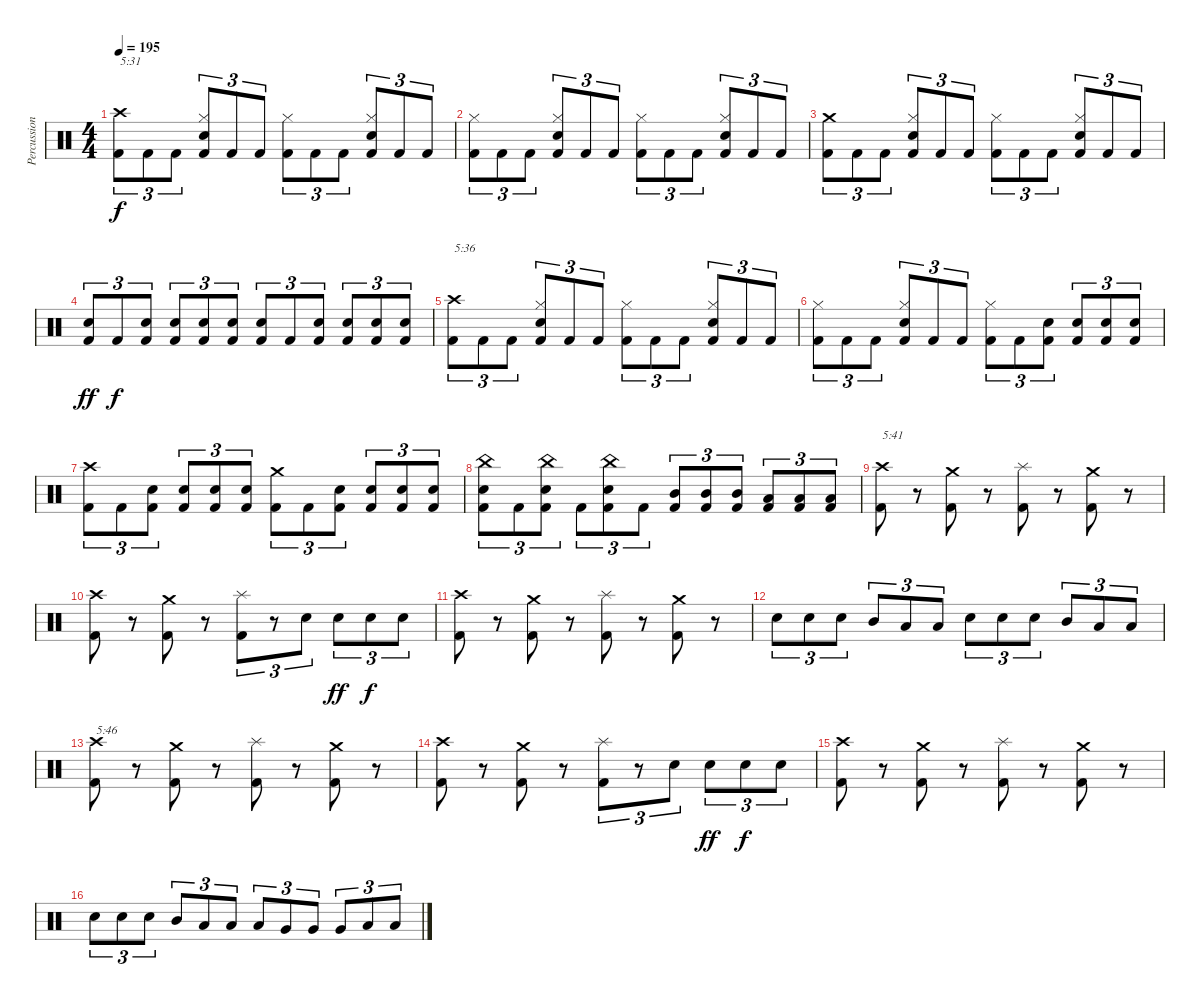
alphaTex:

\track ("Percussion" "Percussion") {instrument percussion}
\staff {score}
\articulation defaults
\ts (4 4)
\tempo 195
\clef neutral
\ks c
("Crash high (hit)" "Kick (hit) 2").8{tu (3 2) txt "5:31" dy f} "Kick (hit) 2".8{tu (3 2)} "Kick (hit) 2".8{tu (3 2)} ("Hi-Hat (closed)" "Snare (hit) 2" "Kick (hit) 2").8{tu (3 2)} "Kick (hit) 2".8{tu (3 2)} "Kick (hit) 2".8{tu (3 2)} ("Hi-Hat (closed)" "Kick (hit) 2").8{tu (3 2)} "Kick (hit) 2".8{tu (3 2)} "Kick (hit) 2".8{tu (3 2)} ("Hi-Hat (closed)" "Snare (hit) 2" "Kick (hit) 2").8{tu (3 2)} "Kick (hit) 2".8{tu (3 2)} "Kick (hit) 2".8{tu (3 2)} |
("Hi-Hat (closed)" "Kick (hit) 2").8{tu (3 2)} "Kick (hit) 2".8{tu (3 2)} "Kick (hit) 2".8{tu (3 2)} ("Hi-Hat (closed)" "Snare (hit) 2" "Kick (hit) 2").8{tu (3 2)} "Kick (hit) 2".8{tu (3 2)} "Kick (hit) 2".8{tu (3 2)} ("Hi-Hat (closed)" "Kick (hit) 2").8{tu (3 2)} "Kick (hit) 2".8{tu (3 2)} "Kick (hit) 2".8{tu (3 2)} ("Hi-Hat (closed)" "Snare (hit) 2" "Kick (hit) 2").8{tu (3 2)} "Kick (hit) 2".8{tu (3 2)} "Kick (hit) 2".8{tu (3 2)} |
("Crash medium (hit)" "Kick (hit) 2").8{tu (3 2)} "Kick (hit) 2".8{tu (3 2)} "Kick (hit) 2".8{tu (3 2)} ("Hi-Hat (closed)" "Snare (hit) 2" "Kick (hit) 2").8{tu (3 2)} "Kick (hit) 2".8{tu (3 2)} "Kick (hit) 2".8{tu (3 2)} ("Hi-Hat (closed)" "Kick (hit) 2").8{tu (3 2)} "Kick (hit) 2".8{tu (3 2)} "Kick (hit) 2".8{tu (3 2)} ("Hi-Hat (closed)" "Snare (hit) 2" "Kick (hit) 2").8{tu (3 2)} "Kick (hit) 2".8{tu (3 2)} "Kick (hit) 2".8{tu (3 2)} |
("Snare (hit) 2" "Kick (hit) 2").8{tu (3 2) dy ff} "Kick (hit) 2".8{tu (3 2) dy f} ("Snare (hit) 2" "Kick (hit) 2").8{tu (3 2)} ("Snare (hit) 2" "Kick (hit) 2").8{tu (3 2)} ("Snare (hit) 2" "Kick (hit) 2").8{tu (3 2)} ("Snare (hit) 2" "Kick (hit) 2").8{tu (3 2)} ("Snare (hit) 2" "Kick (hit) 2").8{tu (3 2)} "Kick (hit) 2".8{tu (3 2)} ("Snare (hit) 2" "Kick (hit) 2").8{tu (3 2)} ("Snare (hit) 2" "Kick (hit) 2").8{tu (3 2)} ("Snare (hit) 2" "Kick (hit) 2").8{tu (3 2)} ("Snare (hit) 2" "Kick (hit) 2").8{tu (3 2)} |
("Crash high (hit)" "Kick (hit) 2").8{tu (3 2) txt "5:36"} "Kick (hit) 2".8{tu (3 2)} "Kick (hit) 2".8{tu (3 2)} ("Hi-Hat (closed)" "Snare (hit) 2" "Kick (hit) 2").8{tu (3 2)} "Kick (hit) 2".8{tu (3 2)} "Kick (hit) 2".8{tu (3 2)} ("Hi-Hat (closed)" "Kick (hit) 2").8{tu (3 2)} "Kick (hit) 2".8{tu (3 2)} "Kick (hit) 2".8{tu (3 2)} ("Hi-Hat (closed)" "Snare (hit) 2" "Kick (hit) 2").8{tu (3 2)} "Kick (hit) 2".8{tu (3 2)} "Kick (hit) 2".8{tu (3 2)} |
("Hi-Hat (closed)" "Kick (hit) 2").8{tu (3 2)} "Kick (hit) 2".8{tu (3 2)} "Kick (hit) 2".8{tu (3 2)} ("Hi-Hat (closed)" "Snare (hit) 2" "Kick (hit) 2").8{tu (3 2)} "Kick (hit) 2".8{tu (3 2)} "Kick (hit) 2".8{tu (3 2)} ("Hi-Hat (closed)" "Kick (hit) 2").8{tu (3 2)} "Kick (hit) 2".8{tu (3 2)} ("Snare (hit) 2" "Kick (hit) 2").8{tu (3 2)} ("Snare (hit) 2" "Kick (hit) 2").8{tu (3 2)} ("Snare (hit) 2" "Kick (hit) 2").8{tu (3 2)} ("Snare (hit) 2" "Kick (hit) 2").8{tu (3 2)} |
("Crash high (hit)" "Kick (hit) 2").8{tu (3 2)} "Kick (hit) 2".8{tu (3 2)} ("Snare (hit) 2" "Kick (hit) 2").8{tu (3 2)} ("Snare (hit) 2" "Kick (hit) 2").8{tu (3 2)} ("Snare (hit) 2" "Kick (hit) 2").8{tu (3 2)} ("Snare (hit) 2" "Kick (hit) 2").8{tu (3 2)} ("Crash medium (hit)" "Kick (hit) 2").8{tu (3 2)} "Kick (hit) 2".8{tu (3 2)} ("Snare (hit) 2" "Kick (hit) 2").8{tu (3 2)} ("Snare (hit) 2" "Kick (hit) 2").8{tu (3 2)} ("Snare (hit) 2" "Kick (hit) 2").8{tu (3 2)} ("Snare (hit) 2" "Kick (hit) 2").8{tu (3 2)} |
("China (hit)" "Snare (hit) 2" "Kick (hit) 2").8{tu (3 2)} "Kick (hit) 2".8{tu (3 2)} ("China (hit)" "Snare (hit) 2" "Kick (hit) 2").8{tu (3 2)} "Kick (hit) 2".8{tu (3 2)} ("China (hit)" "Snare (hit) 2" "Kick (hit) 2").8{tu (3 2)} "Kick (hit) 2".8{tu (3 2)} ("Mid Tom (hit)" "Kick (hit) 2").8{tu (3 2)} ("Mid Tom (hit)" "Kick (hit) 2").8{tu (3 2)} ("Mid Tom (hit)" "Kick (hit) 2").8{tu (3 2)} ("Low Tom (hit)" "Kick (hit) 2").8{tu (3 2)} ("Low Tom (hit)" "Kick (hit) 2").8{tu (3 2)} ("Low Tom (hit)" "Kick (hit) 2").8{tu (3 2)} |
("Crash high (hit)" "Kick (hit) 2").8{txt "5:41"} r.8 ("Crash medium (hit)" "Kick (hit) 2").8 r.8 ("Splash (hit)" "Kick (hit) 2").8 r.8 ("Crash medium (hit)" "Kick (hit) 2").8 r.8 |
("Crash high (hit)" "Kick (hit) 2").8 r.8 ("Crash medium (hit)" "Kick (hit) 2").8 r.8 ("Splash (hit)" "Kick (hit) 2").8{tu (3 2)} r.8{tu (3 2)} "Snare (hit) 2".8{tu (3 2)} "Snare (hit) 2".8{tu (3 2) dy ff} "Snare (hit) 2".8{tu (3 2) dy f} "Snare (hit) 2".8{tu (3 2)} |
("Crash high (hit)" "Kick (hit) 2").8 r.8 ("Crash medium (hit)" "Kick (hit) 2").8 r.8 ("Splash (hit)" "Kick (hit) 2").8 r.8 ("Crash medium (hit)" "Kick (hit) 2").8 r.8 |
"Snare (hit) 2".8{tu (3 2)} "Snare (hit) 2".8{tu (3 2)} "Snare (hit) 2".8{tu (3 2)} "Mid Tom (hit)".8{tu (3 2)} "Low Tom (hit)".8{tu (3 2)} "Low Tom (hit)".8{tu (3 2)} "Snare (hit) 2".8{tu (3 2)} "Snare (hit) 2".8{tu (3 2)} "Snare (hit) 2".8{tu (3 2)} "Mid Tom (hit)".8{tu (3 2)} "Low Tom (hit)".8{tu (3 2)} "Low Tom (hit)".8{tu (3 2)} |
("Crash high (hit)" "Kick (hit) 2").8{txt "5:46"} r.8 ("Crash medium (hit)" "Kick (hit) 2").8 r.8 ("Splash (hit)" "Kick (hit) 2").8 r.8 ("Crash medium (hit)" "Kick (hit) 2").8 r.8 |
("Crash high (hit)" "Kick (hit) 2").8 r.8 ("Crash medium (hit)" "Kick (hit) 2").8 r.8 ("Splash (hit)" "Kick (hit) 2").8{tu (3 2)} r.8{tu (3 2)} "Snare (hit) 2".8{tu (3 2)} "Snare (hit) 2".8{tu (3 2) dy ff} "Snare (hit) 2".8{tu (3 2) dy f} "Snare (hit) 2".8{tu (3 2)} |
("Crash high (hit)" "Kick (hit) 2").8 r.8 ("Crash medium (hit)" "Kick (hit) 2").8 r.8 ("Splash (hit)" "Kick (hit) 2").8 r.8 ("Crash medium (hit)" "Kick (hit) 2").8 r.8 |
"Snare (hit) 2".8{tu (3 2)} "Snare (hit) 2".8{tu (3 2)} "Snare (hit) 2".8{tu (3 2)} "Mid Tom (hit)".8{tu (3 2)} "Low Tom (hit)".8{tu (3 2)} "Low Tom (hit)".8{tu (3 2)} "Low Tom (hit)".8{tu (3 2)} "Very Low Tom (hit)".8{tu (3 2)} "Very Low Tom (hit)".8{tu (3 2)} "Very Low Tom (hit)".8{tu (3 2)} "Low Floor Tom (hit)".8{tu (3 2)} "Low Floor Tom (hit)".8{tu (3 2)}
